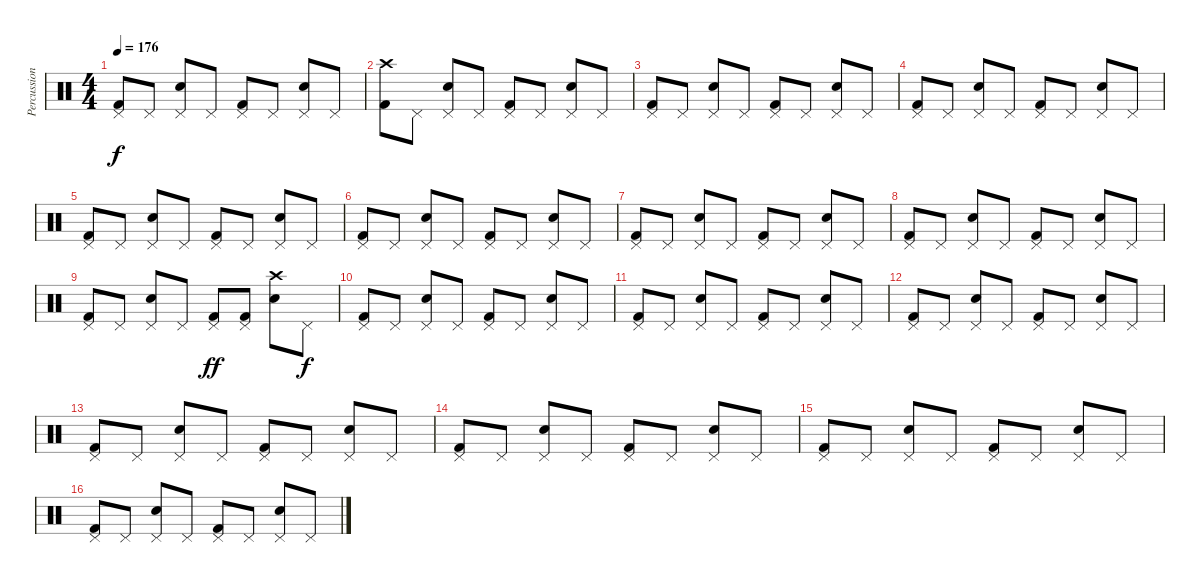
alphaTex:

\track ("Percussions" "Percussion") {instrument percussion}
\staff {score}
\articulation defaults
\ts (4 4)
\tempo 176
\clef neutral
\ks c
("Pedal Hi-Hat (hit)" "Kick (hit) 2").8{dy f} "Pedal Hi-Hat (hit)".8 ("Pedal Hi-Hat (hit)" "Electric Snare (hit)").8 "Pedal Hi-Hat (hit)".8 ("Pedal Hi-Hat (hit)" "Kick (hit) 2").8 "Pedal Hi-Hat (hit)".8 ("Pedal Hi-Hat (hit)" "Electric Snare (hit)").8 "Pedal Hi-Hat (hit)".8 |
("Crash high (hit)" "Kick (hit) 2").8 "Pedal Hi-Hat (hit)".8 ("Pedal Hi-Hat (hit)" "Electric Snare (hit)").8 "Pedal Hi-Hat (hit)".8 ("Pedal Hi-Hat (hit)" "Kick (hit) 2").8 "Pedal Hi-Hat (hit)".8 ("Pedal Hi-Hat (hit)" "Electric Snare (hit)").8 "Pedal Hi-Hat (hit)".8 |
("Pedal Hi-Hat (hit)" "Kick (hit) 2").8 "Pedal Hi-Hat (hit)".8 ("Pedal Hi-Hat (hit)" "Electric Snare (hit)").8 "Pedal Hi-Hat (hit)".8 ("Pedal Hi-Hat (hit)" "Kick (hit) 2").8 "Pedal Hi-Hat (hit)".8 ("Pedal Hi-Hat (hit)" "Electric Snare (hit)").8 "Pedal Hi-Hat (hit)".8 |
("Pedal Hi-Hat (hit)" "Kick (hit) 2").8 "Pedal Hi-Hat (hit)".8 ("Pedal Hi-Hat (hit)" "Electric Snare (hit)").8 "Pedal Hi-Hat (hit)".8 ("Pedal Hi-Hat (hit)" "Kick (hit) 2").8 "Pedal Hi-Hat (hit)".8 ("Pedal Hi-Hat (hit)" "Electric Snare (hit)").8 "Pedal Hi-Hat (hit)".8 |
("Pedal Hi-Hat (hit)" "Kick (hit) 2").8 "Pedal Hi-Hat (hit)".8 ("Pedal Hi-Hat (hit)" "Electric Snare (hit)").8 "Pedal Hi-Hat (hit)".8 ("Pedal Hi-Hat (hit)" "Kick (hit) 2").8 "Pedal Hi-Hat (hit)".8 ("Pedal Hi-Hat (hit)" "Electric Snare (hit)").8 "Pedal Hi-Hat (hit)".8 |
("Pedal Hi-Hat (hit)" "Kick (hit) 2").8 "Pedal Hi-Hat (hit)".8 ("Pedal Hi-Hat (hit)" "Electric Snare (hit)").8 "Pedal Hi-Hat (hit)".8 ("Pedal Hi-Hat (hit)" "Kick (hit) 2").8 "Pedal Hi-Hat (hit)".8 ("Pedal Hi-Hat (hit)" "Electric Snare (hit)").8 "Pedal Hi-Hat (hit)".8 |
("Pedal Hi-Hat (hit)" "Kick (hit) 2").8 "Pedal Hi-Hat (hit)".8 ("Pedal Hi-Hat (hit)" "Electric Snare (hit)").8 "Pedal Hi-Hat (hit)".8 ("Pedal Hi-Hat (hit)" "Kick (hit) 2").8 "Pedal Hi-Hat (hit)".8 ("Pedal Hi-Hat (hit)" "Electric Snare (hit)").8 "Pedal Hi-Hat (hit)".8 |
("Pedal Hi-Hat (hit)" "Kick (hit) 2").8 "Pedal Hi-Hat (hit)".8 ("Pedal Hi-Hat (hit)" "Electric Snare (hit)").8 "Pedal Hi-Hat (hit)".8 ("Pedal Hi-Hat (hit)" "Kick (hit) 2").8 "Pedal Hi-Hat (hit)".8 ("Pedal Hi-Hat (hit)" "Electric Snare (hit)").8 "Pedal Hi-Hat (hit)".8 |
("Pedal Hi-Hat (hit)" "Kick (hit) 2").8 "Pedal Hi-Hat (hit)".8 ("Pedal Hi-Hat (hit)" "Electric Snare (hit)").8 "Pedal Hi-Hat (hit)".8 ("Pedal Hi-Hat (hit)" "Kick (hit) 2").8{dy ff} ("Pedal Hi-Hat (hit)" "Kick (hit) 2").8 ("Crash high (hit)" "Electric Snare (hit)").8 "Pedal Hi-Hat (hit)".8{dy f} |
("Pedal Hi-Hat (hit)" "Kick (hit) 2").8 "Pedal Hi-Hat (hit)".8 ("Pedal Hi-Hat (hit)" "Electric Snare (hit)").8 "Pedal Hi-Hat (hit)".8 ("Pedal Hi-Hat (hit)" "Kick (hit) 2").8 "Pedal Hi-Hat (hit)".8 ("Pedal Hi-Hat (hit)" "Electric Snare (hit)").8 "Pedal Hi-Hat (hit)".8 |
("Pedal Hi-Hat (hit)" "Kick (hit) 2").8 "Pedal Hi-Hat (hit)".8 ("Pedal Hi-Hat (hit)" "Electric Snare (hit)").8 "Pedal Hi-Hat (hit)".8 ("Pedal Hi-Hat (hit)" "Kick (hit) 2").8 "Pedal Hi-Hat (hit)".8 ("Pedal Hi-Hat (hit)" "Electric Snare (hit)").8 "Pedal Hi-Hat (hit)".8 |
("Pedal Hi-Hat (hit)" "Kick (hit) 2").8 "Pedal Hi-Hat (hit)".8 ("Pedal Hi-Hat (hit)" "Electric Snare (hit)").8 "Pedal Hi-Hat (hit)".8 ("Pedal Hi-Hat (hit)" "Kick (hit) 2").8 "Pedal Hi-Hat (hit)".8 ("Pedal Hi-Hat (hit)" "Electric Snare (hit)").8 "Pedal Hi-Hat (hit)".8 |
("Pedal Hi-Hat (hit)" "Kick (hit) 2").8 "Pedal Hi-Hat (hit)".8 ("Pedal Hi-Hat (hit)" "Electric Snare (hit)").8 "Pedal Hi-Hat (hit)".8 ("Pedal Hi-Hat (hit)" "Kick (hit) 2").8 "Pedal Hi-Hat (hit)".8 ("Pedal Hi-Hat (hit)" "Electric Snare (hit)").8 "Pedal Hi-Hat (hit)".8 |
("Pedal Hi-Hat (hit)" "Kick (hit) 2").8 "Pedal Hi-Hat (hit)".8 ("Pedal Hi-Hat (hit)" "Electric Snare (hit)").8 "Pedal Hi-Hat (hit)".8 ("Pedal Hi-Hat (hit)" "Kick (hit) 2").8 "Pedal Hi-Hat (hit)".8 ("Pedal Hi-Hat (hit)" "Electric Snare (hit)").8 "Pedal Hi-Hat (hit)".8 |
("Pedal Hi-Hat (hit)" "Kick (hit) 2").8 "Pedal Hi-Hat (hit)".8 ("Pedal Hi-Hat (hit)" "Electric Snare (hit)").8 "Pedal Hi-Hat (hit)".8 ("Pedal Hi-Hat (hit)" "Kick (hit) 2").8 "Pedal Hi-Hat (hit)".8 ("Pedal Hi-Hat (hit)" "Electric Snare (hit)").8 "Pedal Hi-Hat (hit)".8 |
("Pedal Hi-Hat (hit)" "Kick (hit) 2").8 "Pedal Hi-Hat (hit)".8 ("Pedal Hi-Hat (hit)" "Electric Snare (hit)").8 "Pedal Hi-Hat (hit)".8 ("Pedal Hi-Hat (hit)" "Kick (hit) 2").8 "Pedal Hi-Hat (hit)".8 ("Pedal Hi-Hat (hit)" "Electric Snare (hit)").8 "Pedal Hi-Hat (hit)".8
